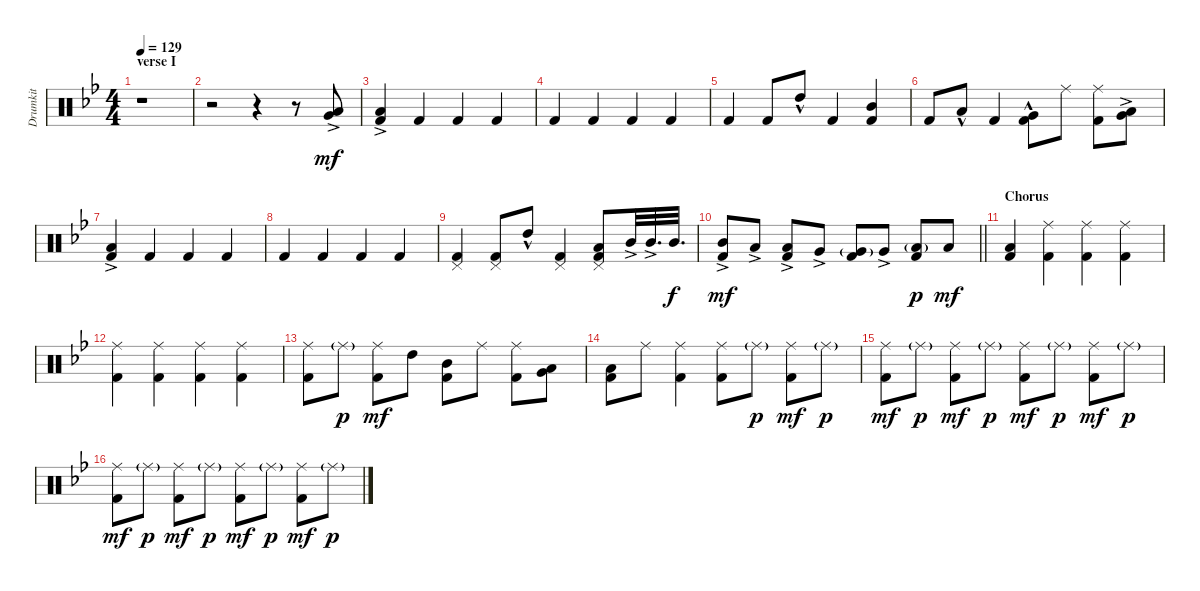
\track ("Drumkit" "Drumkit") {instrument percussion}
\staff {score}
\articulation defaults
\ts (4 4)
\section ("" "verse I")
\tempo 129
\clef neutral
\ks bb
r.1{dy mf} |
r.2 r.4 r.8 ("Low Floor Tom (hit)"{ac} "Very Low Tom (hit)"{ac}).8 |
("Low Floor Tom (hit)"{ac} "Kick (hit) 2"{ac}).4 "Kick (hit) 2".4 "Kick (hit) 2".4 "Kick (hit) 2".4 |
"Kick (hit) 2".4 "Kick (hit) 2".4 "Kick (hit) 2".4 "Kick (hit) 2".4 |
"Kick (hit) 2".4 "Kick (hit) 2".8 "High Tom (hit)"{hac}.8 "Kick (hit) 2".4 ("Mid Tom (hit)" "Kick (hit) 2").4 |
"Kick (hit) 2".8 "Low Tom (hit)"{hac}.8 "Kick (hit) 2".4 ("Kick (hit) 2"{hac} "Very Low Tom (hit)"{hac}).8 "Ride (middle)".8 ("Kick (hit) 2" "Ride (middle)").8 ("Very Low Tom (hit)"{ac} "Low Floor Tom (hit)"{ac}).8 |
("Kick (hit) 2"{ac} "Low Floor Tom (hit)"{ac}).4 "Kick (hit) 2".4 "Kick (hit) 2".4 "Kick (hit) 2".4 |
"Kick (hit) 2".4 "Kick (hit) 2".4 "Kick (hit) 2".4 "Kick (hit) 2".4 |
("Pedal Hi-Hat (hit)" "Kick (hit) 2").4{beam Up} ("Pedal Hi-Hat (hit)" "Kick (hit) 2").8 "High Tom (hit)"{hac}.8 ("Pedal Hi-Hat (hit)" "Kick (hit) 2").4 ("Low Tom (hit)" "Kick (hit) 2" "Pedal Hi-Hat (hit)").8 "Mid Tom (hit)"{ac}.32 "Mid Tom (hit)"{ac}.32{d} "Mid Tom (hit)".32{d dy f} |
\barLineRight lightlight
("Mid Tom (hit)" "Kick (hit) 2"{ac}).8{dy mf} "Low Tom (hit)"{ac}.8 ("Kick (hit) 2" "Low Tom (hit)"{ac}).8 "Very Low Tom (hit)"{ac}.8 ("Very Low Tom (hit)"{g} "Kick (hit) 2").8 "Very Low Tom (hit)"{ac}.8 ("Kick (hit) 2" "Low Floor Tom (hit)"{g}).8{dy p} "Low Floor Tom (hit)".8{dy mf} |
\section ("" "Chorus")
("Kick (hit) 2" "Low Floor Tom (hit)").4 ("Ride (middle)" "Kick (hit) 2").4 ("Ride (middle)" "Kick (hit) 2").4 ("Ride (middle)" "Kick (hit) 2").4 |
("Ride (middle)" "Kick (hit) 2").4 ("Ride (middle)" "Kick (hit) 2").4 ("Ride (middle)" "Kick (hit) 2").4 ("Ride (middle)" "Kick (hit) 2").4 |
("Ride (middle)" "Kick (hit) 2").8 "Ride (middle)"{g}.8{dy p} ("Ride (middle)" "Kick (hit) 2").8{dy mf} "High Tom (hit)".8 ("Mid Tom (hit)" "Kick (hit) 2").8 "Ride (middle)".8 ("Ride (middle)" "Kick (hit) 2").8 ("Low Floor Tom (hit)" "Very Low Tom (hit)").8 |
("Low Floor Tom (hit)" "Kick (hit) 2").8 "Ride (middle)".8 ("Ride (middle)" "Kick (hit) 2").4 ("Ride (middle)" "Kick (hit) 2").8 "Ride (middle)"{g}.8{dy p} ("Ride (middle)" "Kick (hit) 2").8{dy mf} "Ride (middle)"{g}.8{dy p} |
("Ride (middle)" "Kick (hit) 2").8{dy mf} "Ride (middle)"{g}.8{dy p} ("Ride (middle)" "Kick (hit) 2").8{dy mf} "Ride (middle)"{g}.8{dy p} ("Ride (middle)" "Kick (hit) 2").8{dy mf} "Ride (middle)"{g}.8{dy p} ("Ride (middle)" "Kick (hit) 2").8{dy mf} "Ride (middle)"{g}.8{dy p} |
("Ride (middle)" "Kick (hit) 2").8{dy mf} "Ride (middle)"{g}.8{dy p} ("Ride (middle)" "Kick (hit) 2").8{dy mf} "Ride (middle)"{g}.8{dy p} ("Ride (middle)" "Kick (hit) 2").8{dy mf} "Ride (middle)"{g}.8{dy p} ("Ride (middle)" "Kick (hit) 2").8{dy mf} "Ride (middle)"{g}.8{dy p}
